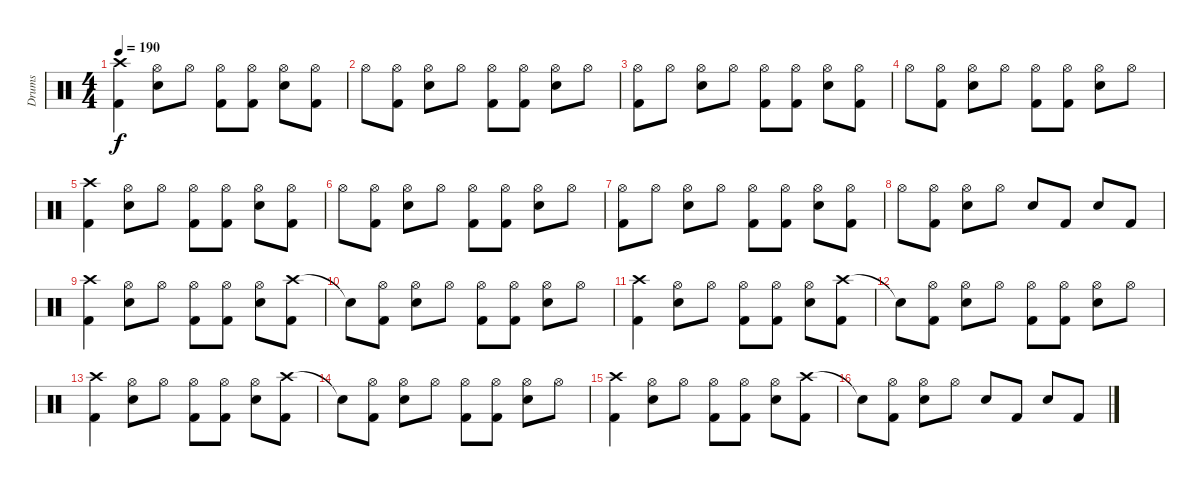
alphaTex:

\track ("Drums" "Drums") {instrument percussion}
\staff {score}
\articulation defaults
\ts (4 4)
\tempo 190
\clef neutral
\ks c
("Crash high (hit)" "Kick (hit) 2").4{dy f} ("Hi-Hat (open)" "Electric Snare (hit)").8 "Hi-Hat (open)".8 ("Hi-Hat (open)" "Kick (hit) 2").8 ("Hi-Hat (open)" "Kick (hit) 2").8 ("Hi-Hat (open)" "Electric Snare (hit)").8 ("Hi-Hat (open)" "Kick (hit) 2").8 |
"Hi-Hat (open)".8 ("Hi-Hat (open)" "Kick (hit) 2").8 ("Hi-Hat (open)" "Electric Snare (hit)").8 "Hi-Hat (open)".8 ("Hi-Hat (open)" "Kick (hit) 2").8 ("Hi-Hat (open)" "Kick (hit) 2").8 ("Hi-Hat (open)" "Electric Snare (hit)").8 "Hi-Hat (open)".8 |
("Hi-Hat (open)" "Kick (hit) 2").8 "Hi-Hat (open)".8 ("Hi-Hat (open)" "Electric Snare (hit)").8 "Hi-Hat (open)".8 ("Hi-Hat (open)" "Kick (hit) 2").8 ("Hi-Hat (open)" "Kick (hit) 2").8 ("Hi-Hat (open)" "Electric Snare (hit)").8 ("Hi-Hat (open)" "Kick (hit) 2").8 |
"Hi-Hat (open)".8 ("Hi-Hat (open)" "Kick (hit) 2").8 ("Hi-Hat (open)" "Electric Snare (hit)").8 "Hi-Hat (open)".8 ("Hi-Hat (open)" "Kick (hit) 2").8 ("Hi-Hat (open)" "Kick (hit) 2").8 ("Hi-Hat (open)" "Electric Snare (hit)").8 "Hi-Hat (open)".8 |
("Crash high (hit)" "Kick (hit) 2").4 ("Hi-Hat (open)" "Electric Snare (hit)").8 "Hi-Hat (open)".8 ("Hi-Hat (open)" "Kick (hit) 2").8 ("Hi-Hat (open)" "Kick (hit) 2").8 ("Hi-Hat (open)" "Electric Snare (hit)").8 ("Hi-Hat (open)" "Kick (hit) 2").8 |
"Hi-Hat (open)".8 ("Hi-Hat (open)" "Kick (hit) 2").8 ("Hi-Hat (open)" "Electric Snare (hit)").8 "Hi-Hat (open)".8 ("Hi-Hat (open)" "Kick (hit) 2").8 ("Hi-Hat (open)" "Kick (hit) 2").8 ("Hi-Hat (open)" "Electric Snare (hit)").8 "Hi-Hat (open)".8 |
("Hi-Hat (open)" "Kick (hit) 2").8 "Hi-Hat (open)".8 ("Hi-Hat (open)" "Electric Snare (hit)").8 "Hi-Hat (open)".8 ("Hi-Hat (open)" "Kick (hit) 2").8 ("Hi-Hat (open)" "Kick (hit) 2").8 ("Hi-Hat (open)" "Electric Snare (hit)").8 ("Hi-Hat (open)" "Kick (hit) 2").8 |
"Hi-Hat (open)".8 ("Hi-Hat (open)" "Kick (hit) 2").8 ("Hi-Hat (open)" "Electric Snare (hit)").8 "Hi-Hat (open)".8 "Electric Snare (hit)".8 "Kick (hit) 2".8 "Electric Snare (hit)".8 "Kick (hit) 2".8 |
("Crash high (hit)" "Kick (hit) 2").4 ("Hi-Hat (open)" "Electric Snare (hit)").8 "Hi-Hat (open)".8 ("Hi-Hat (open)" "Kick (hit) 2").8 ("Hi-Hat (open)" "Kick (hit) 2").8 ("Hi-Hat (open)" "Electric Snare (hit)").8 ("Crash high (hit)" "Kick (hit) 2").8 |
"Snare (hit)"{t}.8 ("Hi-Hat (open)" "Kick (hit) 2").8 ("Hi-Hat (open)" "Electric Snare (hit)").8 "Hi-Hat (open)".8 ("Hi-Hat (open)" "Kick (hit) 2").8 ("Hi-Hat (open)" "Kick (hit) 2").8 ("Hi-Hat (open)" "Electric Snare (hit)").8 "Hi-Hat (open)".8 |
("Crash high (hit)" "Kick (hit) 2").4 ("Hi-Hat (open)" "Electric Snare (hit)").8 "Hi-Hat (open)".8 ("Hi-Hat (open)" "Kick (hit) 2").8 ("Hi-Hat (open)" "Kick (hit) 2").8 ("Hi-Hat (open)" "Electric Snare (hit)").8 ("Crash high (hit)" "Kick (hit) 2").8 |
"Snare (hit)"{t}.8 ("Hi-Hat (open)" "Kick (hit) 2").8 ("Hi-Hat (open)" "Electric Snare (hit)").8 "Hi-Hat (open)".8 ("Hi-Hat (open)" "Kick (hit) 2").8 ("Hi-Hat (open)" "Kick (hit) 2").8 ("Hi-Hat (open)" "Electric Snare (hit)").8 "Hi-Hat (open)".8 |
("Crash high (hit)" "Kick (hit) 2").4 ("Hi-Hat (open)" "Electric Snare (hit)").8 "Hi-Hat (open)".8 ("Hi-Hat (open)" "Kick (hit) 2").8 ("Hi-Hat (open)" "Kick (hit) 2").8 ("Hi-Hat (open)" "Electric Snare (hit)").8 ("Crash high (hit)" "Kick (hit) 2").8 |
"Snare (hit)"{t}.8 ("Hi-Hat (open)" "Kick (hit) 2").8 ("Hi-Hat (open)" "Electric Snare (hit)").8 "Hi-Hat (open)".8 ("Hi-Hat (open)" "Kick (hit) 2").8 ("Hi-Hat (open)" "Kick (hit) 2").8 ("Hi-Hat (open)" "Electric Snare (hit)").8 "Hi-Hat (open)".8 |
("Crash high (hit)" "Kick (hit) 2").4 ("Hi-Hat (open)" "Electric Snare (hit)").8 "Hi-Hat (open)".8 ("Hi-Hat (open)" "Kick (hit) 2").8 ("Hi-Hat (open)" "Kick (hit) 2").8 ("Hi-Hat (open)" "Electric Snare (hit)").8 ("Crash high (hit)" "Kick (hit) 2").8 |
"Snare (hit)"{t}.8 ("Hi-Hat (open)" "Kick (hit) 2").8 ("Hi-Hat (open)" "Electric Snare (hit)").8 "Hi-Hat (open)".8 "Electric Snare (hit)".8 "Kick (hit) 2".8 "Electric Snare (hit)".8 "Kick (hit) 2".8
